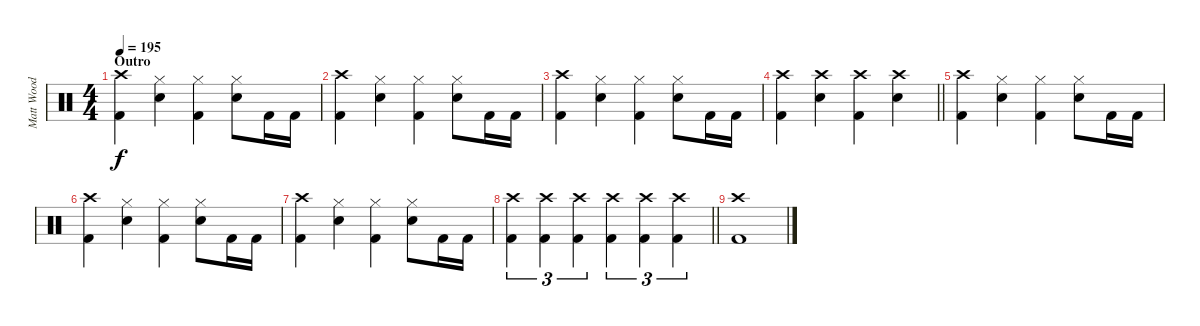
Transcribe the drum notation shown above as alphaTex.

\track ("Matt Wood" "Matt Wood") {instrument percussion}
\staff {score}
\articulation defaults
\ts (4 4)
\section ("" "Outro")
\tempo 195
\clef neutral
\ks c
("Crash high (hit)" "Kick (hit) 2").4{dy f} ("Hi-Hat (closed)" "Snare (hit) 2").4 ("Hi-Hat (closed)" "Kick (hit) 2").4 ("Hi-Hat (closed)" "Snare (hit) 2").8 "Kick (hit) 2".16 "Kick (hit) 2".16 |
("Crash high (hit)" "Kick (hit) 2").4 ("Hi-Hat (closed)" "Snare (hit) 2").4 ("Hi-Hat (closed)" "Kick (hit) 2").4 ("Hi-Hat (closed)" "Snare (hit) 2").8 "Kick (hit) 2".16 "Kick (hit) 2".16 |
("Crash high (hit)" "Kick (hit) 2").4 ("Hi-Hat (closed)" "Snare (hit) 2").4 ("Hi-Hat (closed)" "Kick (hit) 2").4 ("Hi-Hat (closed)" "Snare (hit) 2").8 "Kick (hit) 2".16 "Kick (hit) 2".16 |
\barLineRight lightlight
("Crash high (hit)" "Kick (hit) 2").4 ("Crash high (hit)" "Snare (hit) 2").4 ("Crash high (hit)" "Kick (hit) 2").4 ("Crash high (hit)" "Snare (hit) 2").4 |
("Crash high (hit)" "Kick (hit) 2").4 ("Hi-Hat (closed)" "Snare (hit) 2").4 ("Hi-Hat (closed)" "Kick (hit) 2").4 ("Hi-Hat (closed)" "Snare (hit) 2").8 "Kick (hit) 2".16 "Kick (hit) 2".16 |
("Crash high (hit)" "Kick (hit) 2").4 ("Hi-Hat (closed)" "Snare (hit) 2").4 ("Hi-Hat (closed)" "Kick (hit) 2").4 ("Hi-Hat (closed)" "Snare (hit) 2").8 "Kick (hit) 2".16 "Kick (hit) 2".16 |
("Crash high (hit)" "Kick (hit) 2").4 ("Hi-Hat (closed)" "Snare (hit) 2").4 ("Hi-Hat (closed)" "Kick (hit) 2").4 ("Hi-Hat (closed)" "Snare (hit) 2").8 "Kick (hit) 2".16 "Kick (hit) 2".16 |
\barLineRight lightlight
("Crash high (hit)" "Kick (hit) 2").4{tu (3 2)} ("Crash high (hit)" "Kick (hit) 2").4{tu (3 2)} ("Crash high (hit)" "Kick (hit) 2").4{tu (3 2)} ("Crash high (hit)" "Kick (hit) 2").4{tu (3 2)} ("Crash high (hit)" "Kick (hit) 2").4{tu (3 2)} ("Crash high (hit)" "Kick (hit) 2").4{tu (3 2)} |
("Crash high (hit)" "Kick (hit) 2").1
